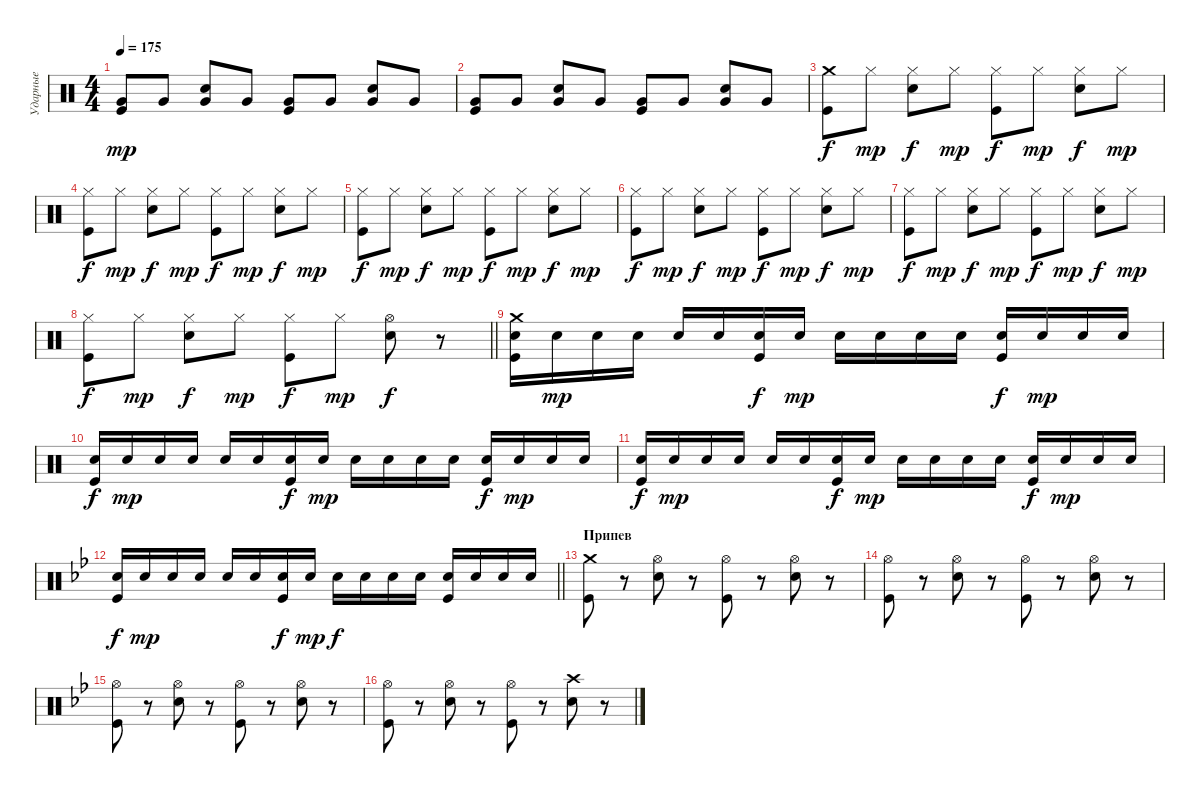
\track ("Ударные" "Ударные") {instrument percussion}
\staff {score}
\articulation defaults
\ts (4 4)
\section ("" " ")
\tempo 175
\clef neutral
\ks c
("Very Low Tom (hit)" "Kick (hit)").8{dy mp} "Very Low Tom (hit)".8 ("Very Low Tom (hit)" "Electric Snare (hit)").8 "Very Low Tom (hit)".8 ("Very Low Tom (hit)" "Kick (hit)").8 "Very Low Tom (hit)".8 ("Very Low Tom (hit)" "Electric Snare (hit)").8 "Very Low Tom (hit)".8 |
("Very Low Tom (hit)" "Kick (hit)").8 "Very Low Tom (hit)".8 ("Very Low Tom (hit)" "Electric Snare (hit)").8 "Very Low Tom (hit)".8 ("Very Low Tom (hit)" "Kick (hit)").8 "Very Low Tom (hit)".8 ("Very Low Tom (hit)" "Electric Snare (hit)").8 "Very Low Tom (hit)".8 |
("Crash medium (hit)" "Kick (hit)").8{dy f} "Hi-Hat (closed)".8{dy mp} ("Hi-Hat (closed)" "Electric Snare (hit)").8{dy f} "Hi-Hat (closed)".8{dy mp} ("Hi-Hat (closed)" "Kick (hit)").8{dy f} "Hi-Hat (closed)".8{dy mp} ("Hi-Hat (closed)" "Electric Snare (hit)").8{dy f} "Hi-Hat (closed)".8{dy mp} |
("Hi-Hat (closed)" "Kick (hit)").8{dy f} "Hi-Hat (closed)".8{dy mp} ("Hi-Hat (closed)" "Electric Snare (hit)").8{dy f} "Hi-Hat (closed)".8{dy mp} ("Hi-Hat (closed)" "Kick (hit)").8{dy f} "Hi-Hat (closed)".8{dy mp} ("Hi-Hat (closed)" "Electric Snare (hit)").8{dy f} "Hi-Hat (closed)".8{dy mp} |
("Hi-Hat (closed)" "Kick (hit)").8{dy f} "Hi-Hat (closed)".8{dy mp} ("Hi-Hat (closed)" "Electric Snare (hit)").8{dy f} "Hi-Hat (closed)".8{dy mp} ("Hi-Hat (closed)" "Kick (hit)").8{dy f} "Hi-Hat (closed)".8{dy mp} ("Hi-Hat (closed)" "Electric Snare (hit)").8{dy f} "Hi-Hat (closed)".8{dy mp} |
("Hi-Hat (closed)" "Kick (hit)").8{dy f} "Hi-Hat (closed)".8{dy mp} ("Hi-Hat (closed)" "Electric Snare (hit)").8{dy f} "Hi-Hat (closed)".8{dy mp} ("Hi-Hat (closed)" "Kick (hit)").8{dy f} "Hi-Hat (closed)".8{dy mp} ("Hi-Hat (closed)" "Electric Snare (hit)").8{dy f} "Hi-Hat (closed)".8{dy mp} |
("Hi-Hat (closed)" "Kick (hit)").8{dy f} "Hi-Hat (closed)".8{dy mp} ("Hi-Hat (closed)" "Electric Snare (hit)").8{dy f} "Hi-Hat (closed)".8{dy mp} ("Hi-Hat (closed)" "Kick (hit)").8{dy f} "Hi-Hat (closed)".8{dy mp} ("Hi-Hat (closed)" "Electric Snare (hit)").8{dy f} "Hi-Hat (closed)".8{dy mp} |
\barLineRight lightlight
("Hi-Hat (closed)" "Kick (hit)").8{dy f} "Hi-Hat (closed)".8{dy mp} ("Hi-Hat (closed)" "Electric Snare (hit)").8{dy f} "Hi-Hat (closed)".8{dy mp} ("Hi-Hat (closed)" "Kick (hit)").8{dy f} "Hi-Hat (closed)".8{dy mp} ("Hi-Hat (open)" "Electric Snare (hit)").8{dy f} r.8 |
\section ("" " ")
("Crash medium (hit)" "Electric Snare (hit)" "Kick (hit)").16 "Electric Snare (hit)".16{dy mp} "Electric Snare (hit)".16 "Electric Snare (hit)".16 "Electric Snare (hit)".16 "Electric Snare (hit)".16 ("Electric Snare (hit)" "Kick (hit)").16{dy f} "Electric Snare (hit)".16{dy mp} "Electric Snare (hit)".16 "Electric Snare (hit)".16 "Electric Snare (hit)".16 "Electric Snare (hit)".16 ("Electric Snare (hit)" "Kick (hit)").16{dy f} "Electric Snare (hit)".16{dy mp} "Electric Snare (hit)".16 "Electric Snare (hit)".16 |
("Electric Snare (hit)" "Kick (hit)").16{dy f} "Electric Snare (hit)".16{dy mp} "Electric Snare (hit)".16 "Electric Snare (hit)".16 "Electric Snare (hit)".16 "Electric Snare (hit)".16 ("Electric Snare (hit)" "Kick (hit)").16{dy f} "Electric Snare (hit)".16{dy mp} "Electric Snare (hit)".16 "Electric Snare (hit)".16 "Electric Snare (hit)".16 "Electric Snare (hit)".16 ("Electric Snare (hit)" "Kick (hit)").16{dy f} "Electric Snare (hit)".16{dy mp} "Electric Snare (hit)".16 "Electric Snare (hit)".16 |
("Electric Snare (hit)" "Kick (hit)").16{dy f} "Electric Snare (hit)".16{dy mp} "Electric Snare (hit)".16 "Electric Snare (hit)".16 "Electric Snare (hit)".16 "Electric Snare (hit)".16 ("Electric Snare (hit)" "Kick (hit)").16{dy f} "Electric Snare (hit)".16{dy mp} "Electric Snare (hit)".16 "Electric Snare (hit)".16 "Electric Snare (hit)".16 "Electric Snare (hit)".16 ("Electric Snare (hit)" "Kick (hit)").16{dy f} "Electric Snare (hit)".16{dy mp} "Electric Snare (hit)".16 "Electric Snare (hit)".16 |
\barLineRight lightlight
\ks bb
("Electric Snare (hit)" "Kick (hit)").16{dy f} "Electric Snare (hit)".16{dy mp} "Electric Snare (hit)".16 "Electric Snare (hit)".16 "Electric Snare (hit)".16 "Electric Snare (hit)".16 ("Electric Snare (hit)" "Kick (hit)").16{dy f} "Electric Snare (hit)".16{dy mp} "Electric Snare (hit)".16{dy f} "Electric Snare (hit)".16 "Electric Snare (hit)".16 "Electric Snare (hit)".16 ("Electric Snare (hit)" "Kick (hit)").16 "Electric Snare (hit)".16 "Electric Snare (hit)".16 "Electric Snare (hit)".16 |
\section ("" "Припев")
("Crash medium (hit)" "Kick (hit)").8 r.8 ("Hi-Hat (open)" "Electric Snare (hit)").8 r.8 ("Hi-Hat (open)" "Kick (hit)").8 r.8 ("Hi-Hat (open)" "Electric Snare (hit)").8 r.8 |
("Hi-Hat (open)" "Kick (hit)").8 r.8 ("Hi-Hat (open)" "Electric Snare (hit)").8 r.8 ("Hi-Hat (open)" "Kick (hit)").8 r.8 ("Hi-Hat (open)" "Electric Snare (hit)").8 r.8 |
("Hi-Hat (open)" "Kick (hit)").8 r.8 ("Hi-Hat (open)" "Electric Snare (hit)").8 r.8 ("Hi-Hat (open)" "Kick (hit)").8 r.8 ("Hi-Hat (open)" "Electric Snare (hit)").8 r.8 |
("Hi-Hat (open)" "Kick (hit)").8 r.8 ("Hi-Hat (open)" "Electric Snare (hit)").8 r.8 ("Hi-Hat (open)" "Kick (hit)").8 r.8 ("Crash high (hit)" "Electric Snare (hit)").8 r.8
